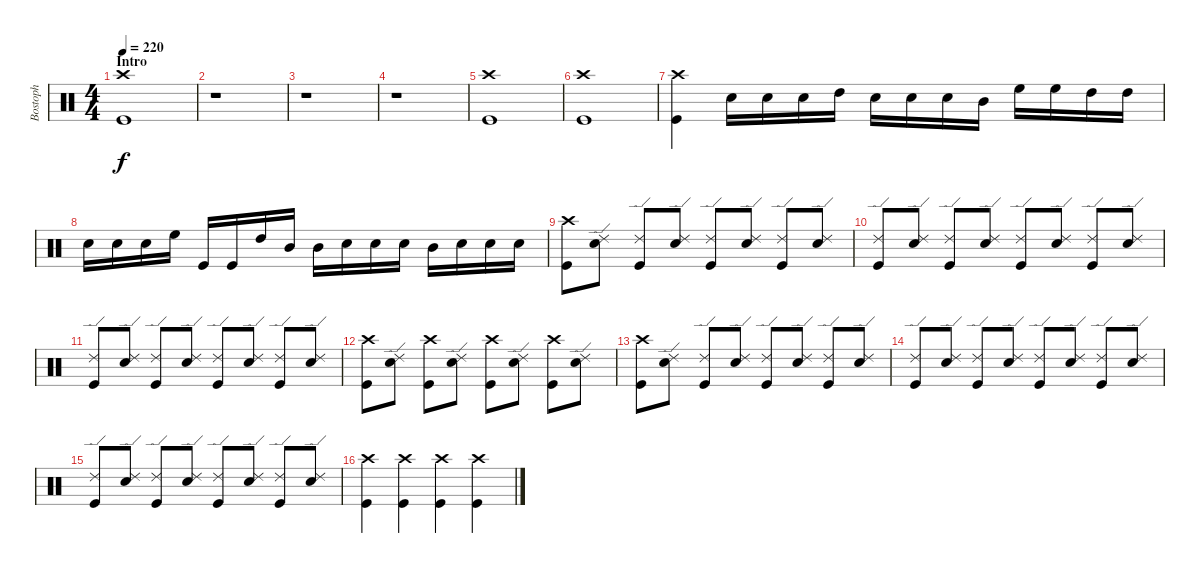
\track ("Bostoph" "Bostoph") {instrument percussion}
\staff {score}
\articulation defaults
\ts (4 4)
\section ("" "Intro")
\tempo 220
\clef neutral
\ks c
("Crash high (hit)" "Kick (hit)").1{dy f} |
r.1 |
r.1 |
r.1 |
("Crash high (hit)" "Kick (hit)").1 |
("Crash high (hit)" "Kick (hit)").1 |
("Crash high (hit)" "Kick (hit)").4 "Snare (hit) 2".16 "Snare (hit) 2".16 "Snare (hit) 2".16 "High Tom (hit)".16 "Snare (hit) 2".16 "Snare (hit) 2".16 "Snare (hit) 2".16 "Mid Tom (hit)".16 "High Floor Tom (hit)".16 "High Floor Tom (hit)".16 "High Tom (hit)".16 "High Tom (hit)".16 |
"Snare (hit) 2".16 "Snare (hit) 2".16 "Snare (hit) 2".16 "High Floor Tom (hit)".16 "Kick (hit)".16 "Kick (hit)".16 "High Tom (hit)".16 "Mid Tom (hit)".16 "Mid Tom (hit)".16 "Snare (hit) 2".16 "Snare (hit) 2".16 "Snare (hit) 2".16 "Mid Tom (hit)".16 "Snare (hit) 2".16 "Snare (hit) 2".16 "Snare (hit) 2".16 |
("Crash high (hit)" "Kick (hit)").8 ("Ride (edge) 2" "Snare (hit) 2").8 ("Ride (edge) 2" "Kick (hit)").8 ("Ride (edge) 2" "Snare (hit) 2").8 ("Ride (edge) 2" "Kick (hit)").8 ("Ride (edge) 2" "Snare (hit) 2").8 ("Ride (edge) 2" "Kick (hit)").8 ("Ride (edge) 2" "Snare (hit) 2").8 |
("Ride (edge) 2" "Kick (hit)").8 ("Ride (edge) 2" "Snare (hit) 2").8 ("Ride (edge) 2" "Kick (hit)").8 ("Ride (edge) 2" "Snare (hit) 2").8 ("Ride (edge) 2" "Kick (hit)").8 ("Ride (edge) 2" "Snare (hit) 2").8 ("Ride (edge) 2" "Kick (hit)").8 ("Ride (edge) 2" "Snare (hit) 2").8 |
("Ride (edge) 2" "Kick (hit)").8 ("Ride (edge) 2" "Snare (hit) 2").8 ("Ride (edge) 2" "Kick (hit)").8 ("Ride (edge) 2" "Snare (hit) 2").8 ("Ride (edge) 2" "Kick (hit)").8 ("Ride (edge) 2" "Snare (hit) 2").8 ("Ride (edge) 2" "Kick (hit)").8 ("Ride (edge) 2" "Snare (hit) 2").8 |
("Crash high (hit)" "Kick (hit)").8 ("Ride (edge) 2" "Snare (hit) 2").8 ("Crash high (hit)" "Kick (hit)").8 ("Ride (edge) 2" "Snare (hit) 2").8 ("Crash high (hit)" "Kick (hit)").8 ("Ride (edge) 2" "Snare (hit) 2").8 ("Crash high (hit)" "Kick (hit)").8 ("Ride (edge) 2" "Snare (hit) 2").8 |
("Crash high (hit)" "Kick (hit)").8 ("Ride (edge) 2" "Snare (hit) 2").8 ("Ride (edge) 2" "Kick (hit)").8 ("Ride (edge) 2" "Snare (hit) 2").8 ("Ride (edge) 2" "Kick (hit)").8 ("Ride (edge) 2" "Snare (hit) 2").8 ("Ride (edge) 2" "Kick (hit)").8 ("Ride (edge) 2" "Snare (hit) 2").8 |
("Ride (edge) 2" "Kick (hit)").8 ("Ride (edge) 2" "Snare (hit) 2").8 ("Ride (edge) 2" "Kick (hit)").8 ("Ride (edge) 2" "Snare (hit) 2").8 ("Ride (edge) 2" "Kick (hit)").8 ("Ride (edge) 2" "Snare (hit) 2").8 ("Ride (edge) 2" "Kick (hit)").8 ("Ride (edge) 2" "Snare (hit) 2").8 |
("Ride (edge) 2" "Kick (hit)").8 ("Ride (edge) 2" "Snare (hit) 2").8 ("Ride (edge) 2" "Kick (hit)").8 ("Ride (edge) 2" "Snare (hit) 2").8 ("Ride (edge) 2" "Kick (hit)").8 ("Ride (edge) 2" "Snare (hit) 2").8 ("Ride (edge) 2" "Kick (hit)").8 ("Ride (edge) 2" "Snare (hit) 2").8 |
("Crash high (hit)" "Kick (hit)").4 ("Crash high (hit)" "Kick (hit)").4 ("Crash high (hit)" "Kick (hit)").4 ("Crash high (hit)" "Kick (hit)").4
